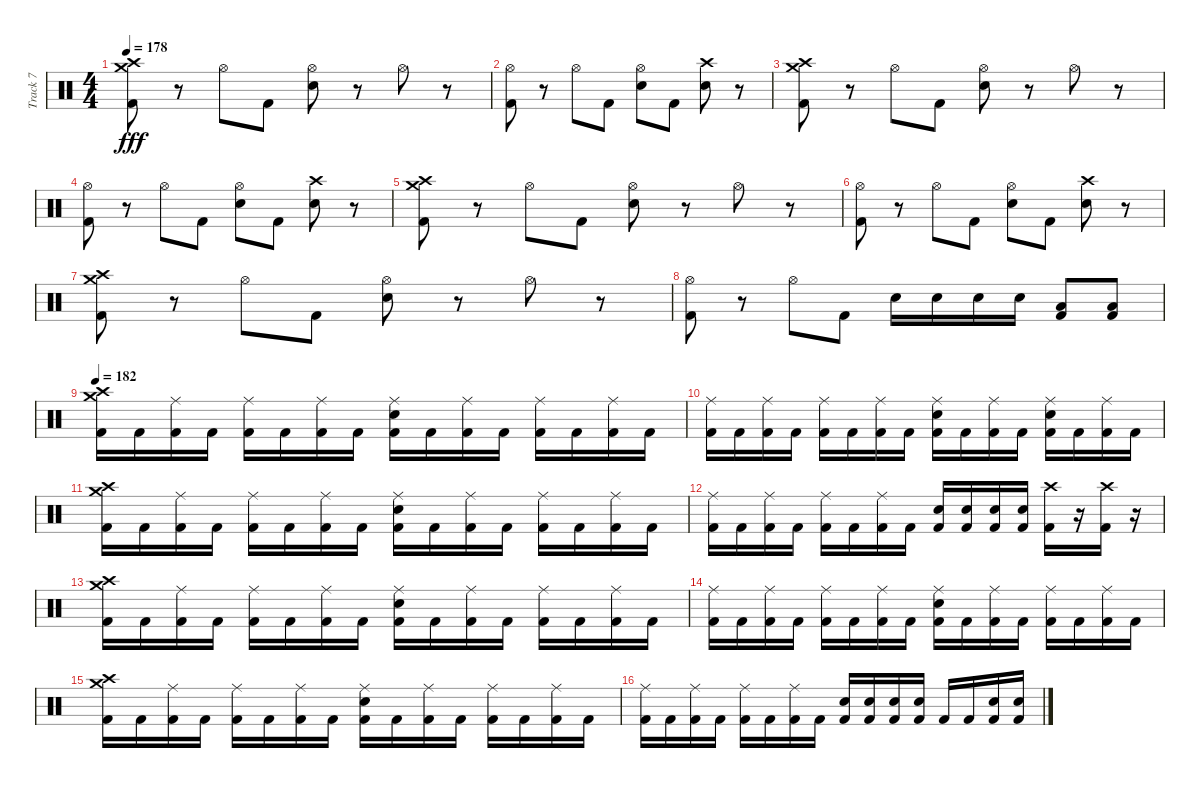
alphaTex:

\track ("Track 7" "Track 7") {instrument percussion}
\staff {score}
\articulation defaults
\ts (4 4)
\tempo 178
\clef neutral
\ks c
("Kick (hit) 2" "Crash medium (hit)" "Crash high (hit)").8{dy fff} r.8 "Hi-Hat (open)".8 "Kick (hit) 2".8 ("Electric Snare (hit)" "Hi-Hat (open)").8 r.8 "Hi-Hat (open)".8 r.8 |
("Kick (hit) 2" "Hi-Hat (open)").8 r.8 "Hi-Hat (open)".8 "Kick (hit) 2".8 ("Electric Snare (hit)" "Hi-Hat (open)").8 "Kick (hit) 2".8 ("Electric Snare (hit)" "Crash high (hit)").8 r.8 |
("Kick (hit) 2" "Crash medium (hit)" "Crash high (hit)").8 r.8 "Hi-Hat (open)".8 "Kick (hit) 2".8 ("Electric Snare (hit)" "Hi-Hat (open)").8 r.8 "Hi-Hat (open)".8 r.8 |
("Kick (hit) 2" "Hi-Hat (open)").8 r.8 "Hi-Hat (open)".8 "Kick (hit) 2".8 ("Electric Snare (hit)" "Hi-Hat (open)").8 "Kick (hit) 2".8 ("Electric Snare (hit)" "Crash high (hit)").8 r.8 |
("Kick (hit) 2" "Crash medium (hit)" "Crash high (hit)").8 r.8 "Hi-Hat (open)".8 "Kick (hit) 2".8 ("Electric Snare (hit)" "Hi-Hat (open)").8 r.8 "Hi-Hat (open)".8 r.8 |
("Kick (hit) 2" "Hi-Hat (open)").8 r.8 "Hi-Hat (open)".8 "Kick (hit) 2".8 ("Electric Snare (hit)" "Hi-Hat (open)").8 "Kick (hit) 2".8 ("Electric Snare (hit)" "Crash high (hit)").8 r.8 |
("Kick (hit) 2" "Crash medium (hit)" "Crash high (hit)").8 r.8 "Hi-Hat (open)".8 "Kick (hit) 2".8 ("Electric Snare (hit)" "Hi-Hat (open)").8 r.8 "Hi-Hat (open)".8 r.8 |
("Kick (hit) 2" "Hi-Hat (open)").8 r.8 "Hi-Hat (open)".8 "Kick (hit) 2".8 "Electric Snare (hit)".16 "Electric Snare (hit)".16 "Electric Snare (hit)".16 "Electric Snare (hit)".16 ("Kick (hit) 2" "Low Floor Tom (hit)").8 ("Kick (hit) 2" "Low Floor Tom (hit)").8 |
\tempo 182
("Kick (hit) 2" "Crash medium (hit)" "Crash high (hit)").16 "Kick (hit) 2".16 ("Kick (hit) 2" "Ride (middle)").16 "Kick (hit) 2".16 ("Kick (hit) 2" "Ride (middle)").16 "Kick (hit) 2".16 ("Kick (hit) 2" "Ride (middle)").16 "Kick (hit) 2".16 ("Kick (hit) 2" "Electric Snare (hit)" "Ride (middle)").16 "Kick (hit) 2".16 ("Kick (hit) 2" "Ride (middle)").16 "Kick (hit) 2".16 ("Kick (hit) 2" "Ride (middle)").16 "Kick (hit) 2".16 ("Kick (hit) 2" "Ride (middle)").16 "Kick (hit) 2".16 |
("Kick (hit) 2" "Ride (middle)").16 "Kick (hit) 2".16 ("Kick (hit) 2" "Ride (middle)").16 "Kick (hit) 2".16 ("Kick (hit) 2" "Ride (middle)").16 "Kick (hit) 2".16 ("Kick (hit) 2" "Ride (middle)").16 "Kick (hit) 2".16 ("Kick (hit) 2" "Ride (middle)" "Electric Snare (hit)").16 "Kick (hit) 2".16 ("Kick (hit) 2" "Ride (middle)").16 "Kick (hit) 2".16 ("Kick (hit) 2" "Ride (middle)" "Electric Snare (hit)").16 "Kick (hit) 2".16 ("Kick (hit) 2" "Ride (middle)").16 "Kick (hit) 2".16 |
("Kick (hit) 2" "Crash medium (hit)" "Crash high (hit)").16 "Kick (hit) 2".16 ("Kick (hit) 2" "Ride (middle)").16 "Kick (hit) 2".16 ("Kick (hit) 2" "Ride (middle)").16 "Kick (hit) 2".16 ("Kick (hit) 2" "Ride (middle)").16 "Kick (hit) 2".16 ("Kick (hit) 2" "Electric Snare (hit)" "Ride (middle)").16 "Kick (hit) 2".16 ("Kick (hit) 2" "Ride (middle)").16 "Kick (hit) 2".16 ("Kick (hit) 2" "Ride (middle)").16 "Kick (hit) 2".16 ("Kick (hit) 2" "Ride (middle)").16 "Kick (hit) 2".16 |
("Kick (hit) 2" "Ride (middle)").16 "Kick (hit) 2".16 ("Kick (hit) 2" "Ride (middle)").16 "Kick (hit) 2".16 ("Kick (hit) 2" "Ride (middle)").16 "Kick (hit) 2".16 ("Kick (hit) 2" "Ride (middle)").16 "Kick (hit) 2".16 ("Kick (hit) 2" "Electric Snare (hit)").16 ("Kick (hit) 2" "Electric Snare (hit)").16 ("Kick (hit) 2" "Electric Snare (hit)").16 ("Kick (hit) 2" "Electric Snare (hit)").16 ("Kick (hit) 2" "Crash high (hit)").16 r.16 ("Kick (hit) 2" "Crash high (hit)").16 r.16 |
("Kick (hit) 2" "Crash medium (hit)" "Crash high (hit)").16 "Kick (hit) 2".16 ("Kick (hit) 2" "Ride (middle)").16 "Kick (hit) 2".16 ("Kick (hit) 2" "Ride (middle)").16 "Kick (hit) 2".16 ("Kick (hit) 2" "Ride (middle)").16 "Kick (hit) 2".16 ("Kick (hit) 2" "Electric Snare (hit)" "Ride (middle)").16 "Kick (hit) 2".16 ("Kick (hit) 2" "Ride (middle)").16 "Kick (hit) 2".16 ("Kick (hit) 2" "Ride (middle)").16 "Kick (hit) 2".16 ("Kick (hit) 2" "Ride (middle)").16 "Kick (hit) 2".16 |
("Kick (hit) 2" "Ride (middle)").16 "Kick (hit) 2".16 ("Kick (hit) 2" "Ride (middle)").16 "Kick (hit) 2".16 ("Kick (hit) 2" "Ride (middle)").16 "Kick (hit) 2".16 ("Kick (hit) 2" "Ride (middle)").16 "Kick (hit) 2".16 ("Kick (hit) 2" "Ride (middle)" "Electric Snare (hit)").16 "Kick (hit) 2".16 ("Kick (hit) 2" "Ride (middle)").16 "Kick (hit) 2".16 ("Kick (hit) 2" "Ride (middle)").16 "Kick (hit) 2".16 ("Kick (hit) 2" "Ride (middle)").16 "Kick (hit) 2".16 |
("Kick (hit) 2" "Crash medium (hit)" "Crash high (hit)").16 "Kick (hit) 2".16 ("Kick (hit) 2" "Ride (middle)").16 "Kick (hit) 2".16 ("Kick (hit) 2" "Ride (middle)").16 "Kick (hit) 2".16 ("Kick (hit) 2" "Ride (middle)").16 "Kick (hit) 2".16 ("Kick (hit) 2" "Electric Snare (hit)" "Ride (middle)").16 "Kick (hit) 2".16 ("Kick (hit) 2" "Ride (middle)").16 "Kick (hit) 2".16 ("Kick (hit) 2" "Ride (middle)").16 "Kick (hit) 2".16 ("Kick (hit) 2" "Ride (middle)").16 "Kick (hit) 2".16 |
("Kick (hit) 2" "Ride (middle)").16 "Kick (hit) 2".16 ("Kick (hit) 2" "Ride (middle)").16 "Kick (hit) 2".16 ("Kick (hit) 2" "Ride (middle)").16 "Kick (hit) 2".16 ("Kick (hit) 2" "Ride (middle)").16 "Kick (hit) 2".16 ("Kick (hit) 2" "Electric Snare (hit)").16 ("Kick (hit) 2" "Electric Snare (hit)").16 ("Kick (hit) 2" "Electric Snare (hit)").16 ("Kick (hit) 2" "Electric Snare (hit)").16 "Kick (hit) 2".16 "Kick (hit) 2".16 ("Kick (hit) 2" "Electric Snare (hit)").16 ("Kick (hit) 2" "Electric Snare (hit)").16
